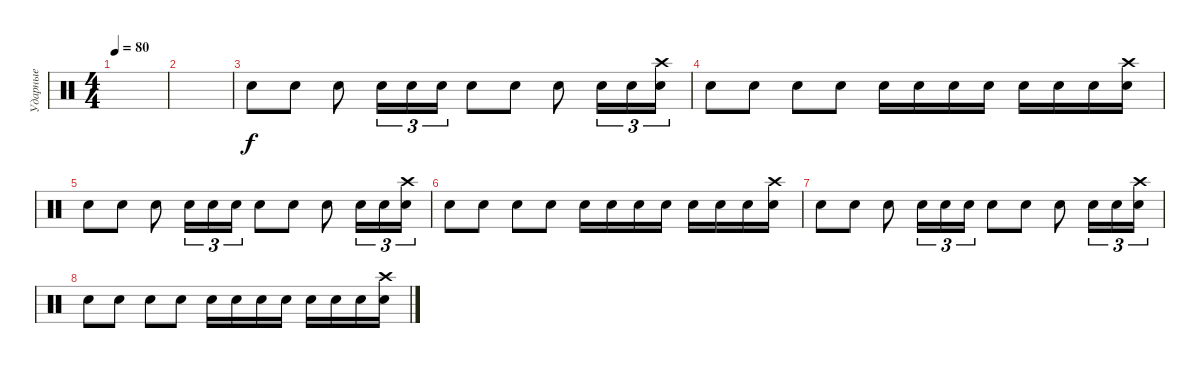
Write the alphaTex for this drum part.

\track ("Ударные" "Ударные") {instrument percussion}
\staff {score}
\articulation defaults
\ts (4 4)
\tempo 80
\clef neutral
\ks c
|
|
"Snare (hit) 2".8 "Snare (hit) 2".8 "Snare (hit) 2".8 "Snare (hit) 2".16{tu (3 2)} "Snare (hit) 2".16{tu (3 2)} "Snare (hit) 2".16{tu (3 2)} "Snare (hit) 2".8 "Snare (hit) 2".8 "Snare (hit) 2".8 "Snare (hit) 2".16{tu (3 2)} "Snare (hit) 2".16{tu (3 2)} ("Snare (hit) 2" "Crash high (hit)").16{tu (3 2)} |
"Snare (hit) 2".8 "Snare (hit) 2".8 "Snare (hit) 2".8 "Snare (hit) 2".8 "Snare (hit) 2".16 "Snare (hit) 2".16 "Snare (hit) 2".16 "Snare (hit) 2".16 "Snare (hit) 2".16 "Snare (hit) 2".16 "Snare (hit) 2".16 ("Crash high (hit)" "Snare (hit) 2").16 |
"Snare (hit) 2".8 "Snare (hit) 2".8 "Snare (hit) 2".8 "Snare (hit) 2".16{tu (3 2)} "Snare (hit) 2".16{tu (3 2)} "Snare (hit) 2".16{tu (3 2)} "Snare (hit) 2".8 "Snare (hit) 2".8 "Snare (hit) 2".8 "Snare (hit) 2".16{tu (3 2)} "Snare (hit) 2".16{tu (3 2)} ("Snare (hit) 2" "Crash high (hit)").16{tu (3 2)} |
"Snare (hit) 2".8 "Snare (hit) 2".8 "Snare (hit) 2".8 "Snare (hit) 2".8 "Snare (hit) 2".16 "Snare (hit) 2".16 "Snare (hit) 2".16 "Snare (hit) 2".16 "Snare (hit) 2".16 "Snare (hit) 2".16 "Snare (hit) 2".16 ("Crash high (hit)" "Snare (hit) 2").16 |
"Snare (hit) 2".8 "Snare (hit) 2".8 "Snare (hit) 2".8 "Snare (hit) 2".16{tu (3 2)} "Snare (hit) 2".16{tu (3 2)} "Snare (hit) 2".16{tu (3 2)} "Snare (hit) 2".8 "Snare (hit) 2".8 "Snare (hit) 2".8 "Snare (hit) 2".16{tu (3 2)} "Snare (hit) 2".16{tu (3 2)} ("Snare (hit) 2" "Crash high (hit)").16{tu (3 2)} |
"Snare (hit) 2".8 "Snare (hit) 2".8 "Snare (hit) 2".8 "Snare (hit) 2".8 "Snare (hit) 2".16 "Snare (hit) 2".16 "Snare (hit) 2".16 "Snare (hit) 2".16 "Snare (hit) 2".16 "Snare (hit) 2".16 "Snare (hit) 2".16 ("Crash high (hit)" "Snare (hit) 2").16
